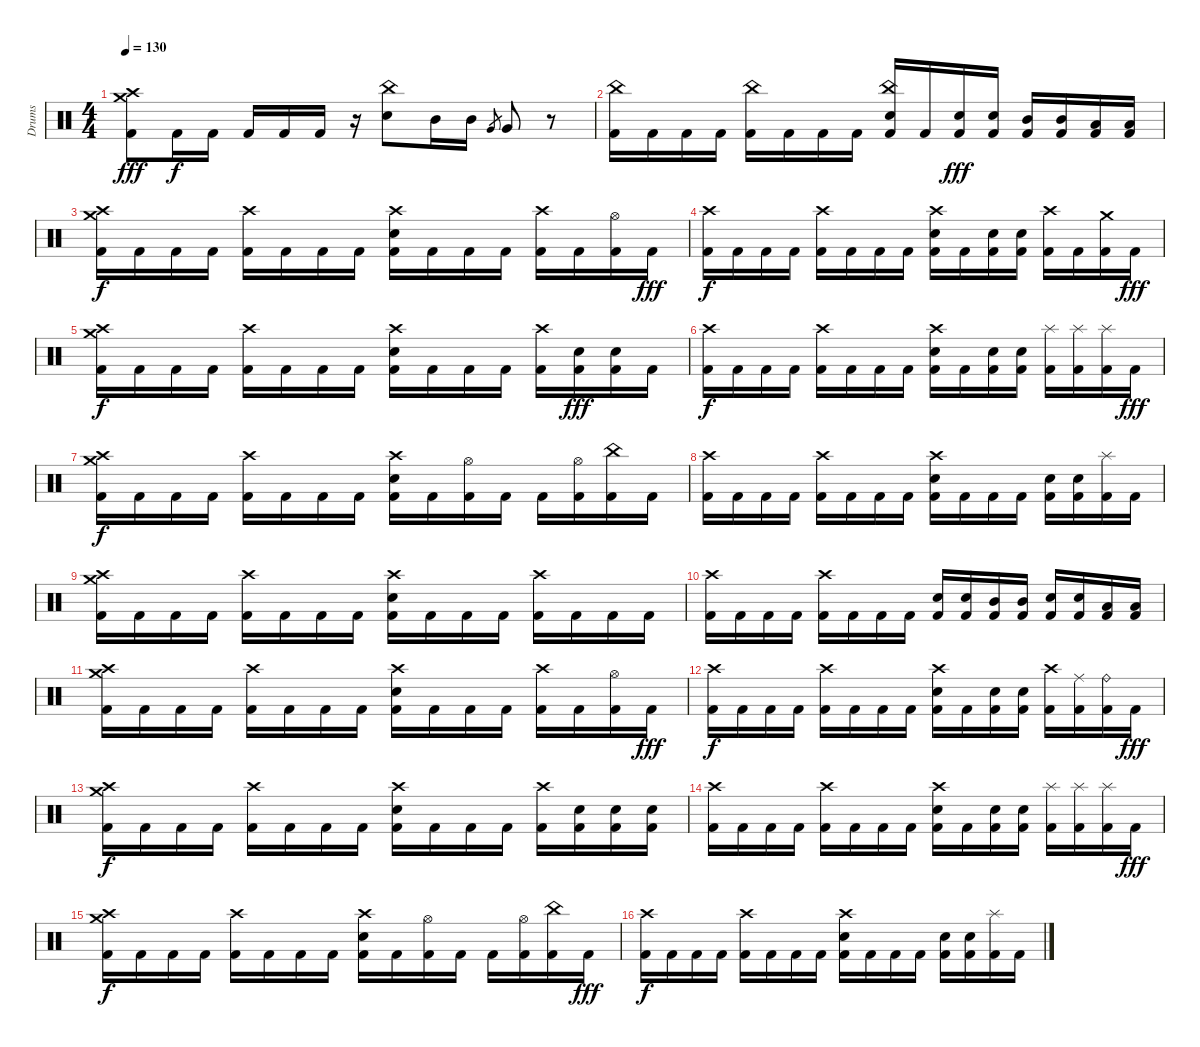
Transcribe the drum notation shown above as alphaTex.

\track ("Drums" "Drums") {instrument percussion}
\staff {score}
\articulation defaults
\ts (4 4)
\tempo 130
\clef neutral
\ks c
("Crash high (hit)" "Crash medium (hit)" "Kick (hit) 2").8{dy fff} "Kick (hit) 2".16{dy f} "Kick (hit) 2".16 "Kick (hit) 2".16 "Kick (hit) 2".16 "Kick (hit) 2".16 r.16 ("China (hit)" "Electric Snare (hit)").8 "Mid Tom (hit)".16 "Mid Tom (hit)".16 "Very Low Tom (hit)".8{gr} "Very Low Tom (hit)".8 r.8 |
("China (hit)" "Kick (hit) 2").16 "Kick (hit) 2".16 "Kick (hit) 2".16 "Kick (hit) 2".16 ("China (hit)" "Kick (hit) 2").16 "Kick (hit) 2".16 "Kick (hit) 2".16 "Kick (hit) 2".16 ("China (hit)" "Electric Snare (hit)" "Kick (hit) 2").16 "Kick (hit) 2".16 ("Electric Snare (hit)" "Kick (hit) 2").16{dy fff} ("Electric Snare (hit)" "Kick (hit) 2").16 ("Mid Tom (hit)" "Kick (hit) 2").16 ("Mid Tom (hit)" "Kick (hit) 2").16 ("Low Tom (hit)" "Kick (hit) 2").16 ("Low Tom (hit)" "Kick (hit) 2").16 |
("Crash high (hit)" "Crash medium (hit)" "Kick (hit) 2").16{dy f} "Kick (hit) 2".16 "Kick (hit) 2".16 "Kick (hit) 2".16 ("Crash high (hit)" "Kick (hit) 2").16 "Kick (hit) 2".16 "Kick (hit) 2".16 "Kick (hit) 2".16 ("Crash high (hit)" "Electric Snare (hit)" "Kick (hit) 2").16 "Kick (hit) 2".16 "Kick (hit) 2".16 "Kick (hit) 2".16 ("Crash high (hit)" "Kick (hit) 2").16 "Kick (hit) 2".16 ("Hi-Hat (open)" "Kick (hit) 2").16 "Kick (hit) 2".16{dy fff} |
("Crash high (hit)" "Kick (hit) 2").16{dy f} "Kick (hit) 2".16 "Kick (hit) 2".16 "Kick (hit) 2".16 ("Crash high (hit)" "Kick (hit) 2").16 "Kick (hit) 2".16 "Kick (hit) 2".16 "Kick (hit) 2".16 ("Crash high (hit)" "Electric Snare (hit)" "Kick (hit) 2").16 "Kick (hit) 2".16 ("Electric Snare (hit)" "Kick (hit) 2").16 ("Electric Snare (hit)" "Kick (hit) 2").16 ("Crash high (hit)" "Kick (hit) 2").16 "Kick (hit) 2".16 ("Crash medium (hit)" "Kick (hit) 2").16 "Kick (hit) 2".16{dy fff} |
("Crash high (hit)" "Crash medium (hit)" "Kick (hit) 2").16{dy f} "Kick (hit) 2".16 "Kick (hit) 2".16 "Kick (hit) 2".16 ("Crash high (hit)" "Kick (hit) 2").16 "Kick (hit) 2".16 "Kick (hit) 2".16 "Kick (hit) 2".16 ("Crash high (hit)" "Electric Snare (hit)" "Kick (hit) 2").16 "Kick (hit) 2".16 "Kick (hit) 2".16 "Kick (hit) 2".16 ("Crash high (hit)" "Kick (hit) 2").16 ("Electric Snare (hit)" "Kick (hit) 2").16{dy fff} ("Electric Snare (hit)" "Kick (hit) 2").16 "Kick (hit) 2".16 |
("Crash high (hit)" "Kick (hit) 2").16{dy f} "Kick (hit) 2".16 "Kick (hit) 2".16 "Kick (hit) 2".16 ("Crash high (hit)" "Kick (hit) 2").16 "Kick (hit) 2".16 "Kick (hit) 2".16 "Kick (hit) 2".16 ("Crash high (hit)" "Electric Snare (hit)" "Kick (hit) 2").16 "Kick (hit) 2".16 ("Electric Snare (hit)" "Kick (hit) 2").16 ("Electric Snare (hit)" "Kick (hit) 2").16 ("Splash (hit)" "Kick (hit) 2").16 ("Splash (hit)" "Kick (hit) 2").16 ("Splash (hit)" "Kick (hit) 2").16 "Kick (hit) 2".16{dy fff} |
("Crash high (hit)" "Crash medium (hit)" "Kick (hit) 2").16{dy f} "Kick (hit) 2".16 "Kick (hit) 2".16 "Kick (hit) 2".16 ("Crash high (hit)" "Kick (hit) 2").16 "Kick (hit) 2".16 "Kick (hit) 2".16 "Kick (hit) 2".16 ("Crash high (hit)" "Electric Snare (hit)" "Kick (hit) 2").16 "Kick (hit) 2".16 ("Hi-Hat (open)" "Kick (hit) 2").16 "Kick (hit) 2".16 "Kick (hit) 2".16 ("Hi-Hat (open)" "Kick (hit) 2").16 ("China (hit)" "Kick (hit) 2").16 "Kick (hit) 2".16 |
("Crash high (hit)" "Kick (hit) 2").16 "Kick (hit) 2".16 "Kick (hit) 2".16 "Kick (hit) 2".16 ("Crash high (hit)" "Kick (hit) 2").16 "Kick (hit) 2".16 "Kick (hit) 2".16 "Kick (hit) 2".16 ("Crash high (hit)" "Electric Snare (hit)" "Kick (hit) 2").16 "Kick (hit) 2".16 "Kick (hit) 2".16 "Kick (hit) 2".16 ("Electric Snare (hit)" "Kick (hit) 2").16 ("Electric Snare (hit)" "Kick (hit) 2").16 ("Splash (hit)" "Kick (hit) 2").16 "Kick (hit) 2".16 |
("Crash high (hit)" "Crash medium (hit)" "Kick (hit) 2").16 "Kick (hit) 2".16 "Kick (hit) 2".16 "Kick (hit) 2".16 ("Crash high (hit)" "Kick (hit) 2").16 "Kick (hit) 2".16 "Kick (hit) 2".16 "Kick (hit) 2".16 ("Crash high (hit)" "Electric Snare (hit)" "Kick (hit) 2").16 "Kick (hit) 2".16 "Kick (hit) 2".16 "Kick (hit) 2".16 ("Crash high (hit)" "Kick (hit) 2").16 "Kick (hit) 2".16 "Kick (hit) 2".16 "Kick (hit) 2".16 |
("Crash high (hit)" "Kick (hit) 2").16 "Kick (hit) 2".16 "Kick (hit) 2".16 "Kick (hit) 2".16 ("Crash high (hit)" "Kick (hit) 2").16 "Kick (hit) 2".16 "Kick (hit) 2".16 "Kick (hit) 2".16 ("Electric Snare (hit)" "Kick (hit) 2").16 ("Electric Snare (hit)" "Kick (hit) 2").16 ("Mid Tom (hit)" "Kick (hit) 2").16 ("Mid Tom (hit)" "Kick (hit) 2").16 ("Electric Snare (hit)" "Kick (hit) 2").16 ("Electric Snare (hit)" "Kick (hit) 2").16 ("Low Tom (hit)" "Kick (hit) 2").16 ("Low Tom (hit)" "Kick (hit) 2").16 |
("Crash high (hit)" "Crash medium (hit)" "Kick (hit) 2").16 "Kick (hit) 2".16 "Kick (hit) 2".16 "Kick (hit) 2".16 ("Crash high (hit)" "Kick (hit) 2").16 "Kick (hit) 2".16 "Kick (hit) 2".16 "Kick (hit) 2".16 ("Crash high (hit)" "Electric Snare (hit)" "Kick (hit) 2").16 "Kick (hit) 2".16 "Kick (hit) 2".16 "Kick (hit) 2".16 ("Crash high (hit)" "Kick (hit) 2").16 "Kick (hit) 2".16 ("Hi-Hat (open)" "Kick (hit) 2").16 "Kick (hit) 2".16{dy fff} |
("Crash high (hit)" "Kick (hit) 2").16{dy f} "Kick (hit) 2".16 "Kick (hit) 2".16 "Kick (hit) 2".16 ("Crash high (hit)" "Kick (hit) 2").16 "Kick (hit) 2".16 "Kick (hit) 2".16 "Kick (hit) 2".16 ("Crash high (hit)" "Electric Snare (hit)" "Kick (hit) 2").16 "Kick (hit) 2".16 ("Electric Snare (hit)" "Kick (hit) 2").16 ("Electric Snare (hit)" "Kick (hit) 2").16 ("Crash high (hit)" "Kick (hit) 2").16 ("Ride (middle)" "Kick (hit) 2").16 ("Ride (bell)" "Kick (hit) 2").16 "Kick (hit) 2".16{dy fff} |
("Crash high (hit)" "Crash medium (hit)" "Kick (hit) 2").16{dy f} "Kick (hit) 2".16 "Kick (hit) 2".16 "Kick (hit) 2".16 ("Crash high (hit)" "Kick (hit) 2").16 "Kick (hit) 2".16 "Kick (hit) 2".16 "Kick (hit) 2".16 ("Crash high (hit)" "Electric Snare (hit)" "Kick (hit) 2").16 "Kick (hit) 2".16 "Kick (hit) 2".16 "Kick (hit) 2".16 ("Crash high (hit)" "Kick (hit) 2").16 ("Electric Snare (hit)" "Kick (hit) 2").16 ("Electric Snare (hit)" "Kick (hit) 2").16 ("Electric Snare (hit)" "Kick (hit) 2").16 |
("Crash high (hit)" "Kick (hit) 2").16 "Kick (hit) 2".16 "Kick (hit) 2".16 "Kick (hit) 2".16 ("Crash high (hit)" "Kick (hit) 2").16 "Kick (hit) 2".16 "Kick (hit) 2".16 "Kick (hit) 2".16 ("Crash high (hit)" "Electric Snare (hit)" "Kick (hit) 2").16 "Kick (hit) 2".16 ("Electric Snare (hit)" "Kick (hit) 2").16 ("Electric Snare (hit)" "Kick (hit) 2").16 ("Splash (hit)" "Kick (hit) 2").16 ("Splash (hit)" "Kick (hit) 2").16 ("Splash (hit)" "Kick (hit) 2").16 "Kick (hit) 2".16{dy fff} |
("Crash high (hit)" "Crash medium (hit)" "Kick (hit) 2").16{dy f} "Kick (hit) 2".16 "Kick (hit) 2".16 "Kick (hit) 2".16 ("Crash high (hit)" "Kick (hit) 2").16 "Kick (hit) 2".16 "Kick (hit) 2".16 "Kick (hit) 2".16 ("Crash high (hit)" "Electric Snare (hit)" "Kick (hit) 2").16 "Kick (hit) 2".16 ("Hi-Hat (open)" "Kick (hit) 2").16 "Kick (hit) 2".16 "Kick (hit) 2".16 ("Hi-Hat (open)" "Kick (hit) 2").16 ("China (hit)" "Kick (hit) 2").16 "Kick (hit) 2".16{dy fff} |
("Crash high (hit)" "Kick (hit) 2").16{dy f} "Kick (hit) 2".16 "Kick (hit) 2".16 "Kick (hit) 2".16 ("Crash high (hit)" "Kick (hit) 2").16 "Kick (hit) 2".16 "Kick (hit) 2".16 "Kick (hit) 2".16 ("Crash high (hit)" "Electric Snare (hit)" "Kick (hit) 2").16 "Kick (hit) 2".16 "Kick (hit) 2".16 "Kick (hit) 2".16 ("Electric Snare (hit)" "Kick (hit) 2").16 ("Electric Snare (hit)" "Kick (hit) 2").16 ("Splash (hit)" "Kick (hit) 2").16 "Kick (hit) 2".16
